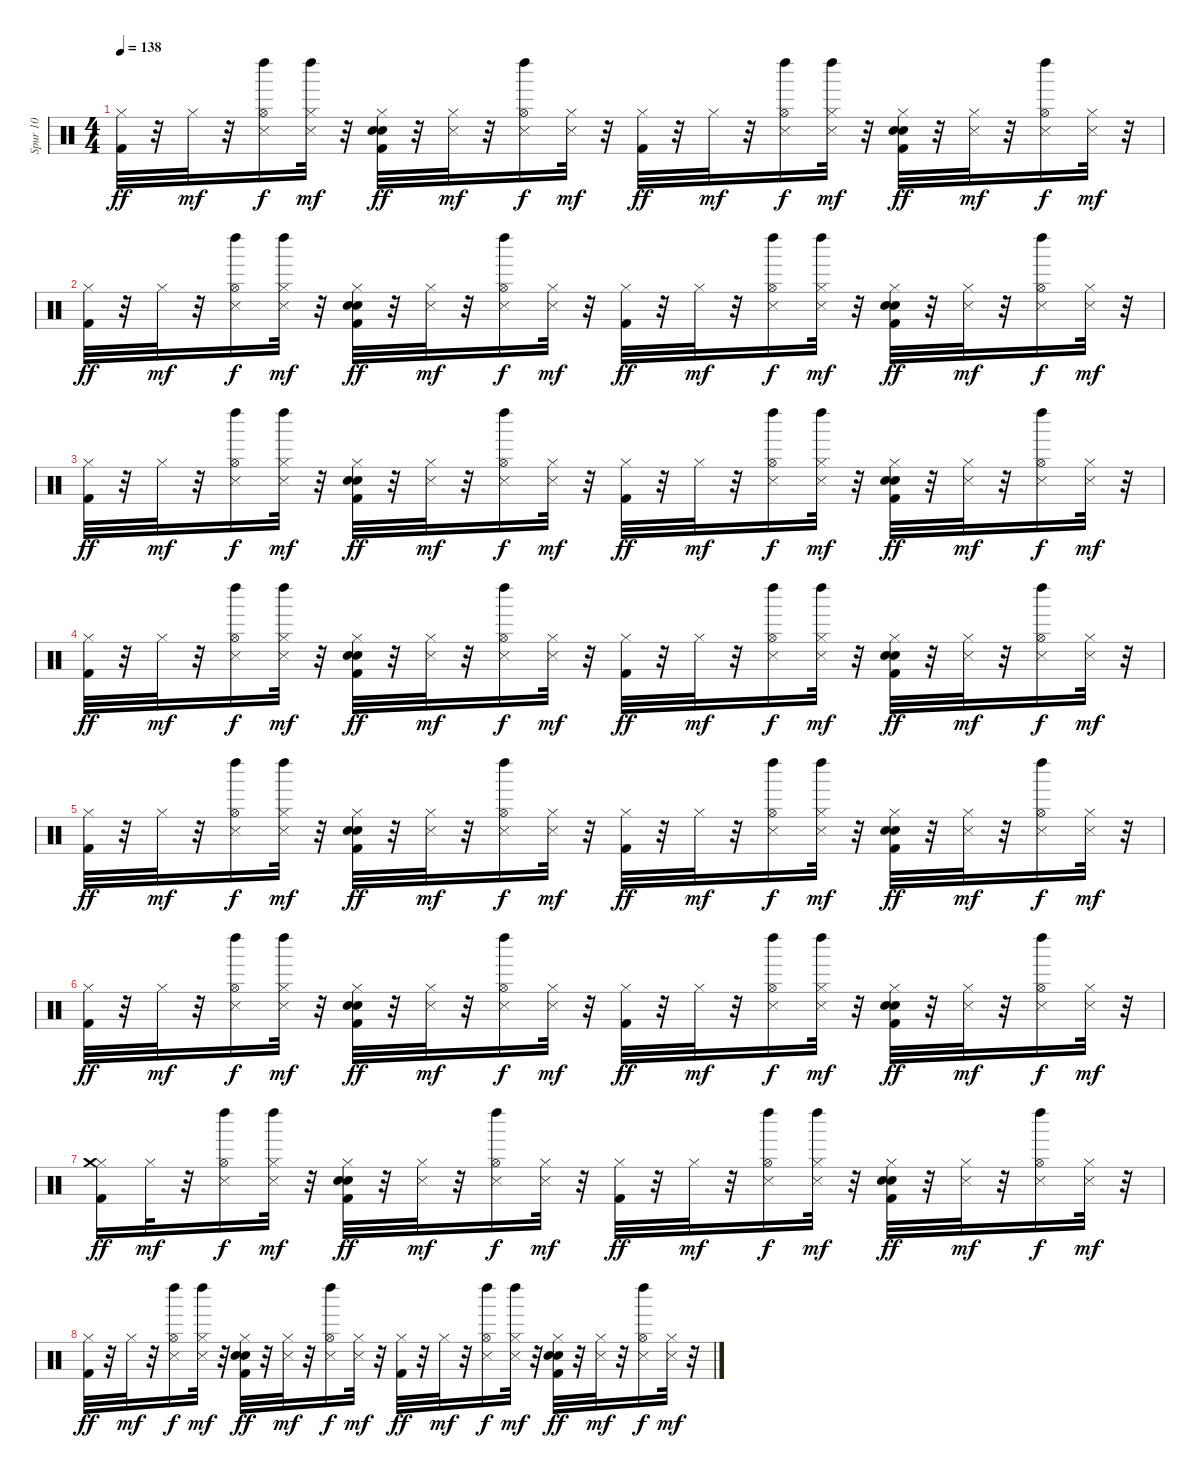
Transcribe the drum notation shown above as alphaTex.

\track ("Spur 10" "Spur 10") {instrument percussion}
\staff {score}
\articulation defaults
\ts (4 4)
\tempo 138
\clef neutral
\ks c
("Hi-Hat (closed)" "Kick (hit) 2").32{dy ff} r.32 "Hi-Hat (closed)".32{dy mf} r.32 ("Snare (side stick) 3" "Hi-Hat (open)" "Left Maraca (hit)").16{dy f} ("Hi-Hat (closed)" "Snare (side stick) 3" "Left Maraca (hit)").32{dy mf} r.32 ("Hand Clap (hit)" "Hi-Hat (closed)" "Kick (hit) 2" "Electric Snare (hit)").32{dy ff} r.32 ("Hi-Hat (closed)" "Snare (side stick) 3").32{dy mf} r.32 ("Snare (side stick) 3" "Hi-Hat (open)" "Left Maraca (hit)").16{dy f} ("Hi-Hat (closed)" "Snare (side stick) 3").32{dy mf} r.32 ("Hi-Hat (closed)" "Kick (hit) 2").32{dy ff} r.32 "Hi-Hat (closed)".32{dy mf} r.32 ("Snare (side stick) 3" "Hi-Hat (open)" "Left Maraca (hit)").16{dy f} ("Hi-Hat (closed)" "Snare (side stick) 3" "Left Maraca (hit)").32{dy mf} r.32 ("Hand Clap (hit)" "Hi-Hat (closed)" "Kick (hit) 2" "Electric Snare (hit)").32{dy ff} r.32 ("Hi-Hat (closed)" "Snare (side stick) 3").32{dy mf} r.32 ("Snare (side stick) 3" "Hi-Hat (open)" "Left Maraca (hit)").16{dy f} ("Hi-Hat (closed)" "Snare (side stick) 3").32{dy mf} r.32 |
("Hi-Hat (closed)" "Kick (hit) 2").32{dy ff} r.32 "Hi-Hat (closed)".32{dy mf} r.32 ("Snare (side stick) 3" "Hi-Hat (open)" "Left Maraca (hit)").16{dy f} ("Hi-Hat (closed)" "Snare (side stick) 3" "Left Maraca (hit)").32{dy mf} r.32 ("Hand Clap (hit)" "Hi-Hat (closed)" "Kick (hit) 2" "Electric Snare (hit)").32{dy ff} r.32 ("Hi-Hat (closed)" "Snare (side stick) 3").32{dy mf} r.32 ("Snare (side stick) 3" "Hi-Hat (open)" "Left Maraca (hit)").16{dy f} ("Hi-Hat (closed)" "Snare (side stick) 3").32{dy mf} r.32 ("Hi-Hat (closed)" "Kick (hit) 2").32{dy ff} r.32 "Hi-Hat (closed)".32{dy mf} r.32 ("Snare (side stick) 3" "Hi-Hat (open)" "Left Maraca (hit)").16{dy f} ("Hi-Hat (closed)" "Snare (side stick) 3" "Left Maraca (hit)").32{dy mf} r.32 ("Hand Clap (hit)" "Hi-Hat (closed)" "Kick (hit) 2" "Electric Snare (hit)").32{dy ff} r.32 ("Hi-Hat (closed)" "Snare (side stick) 3").32{dy mf} r.32 ("Snare (side stick) 3" "Hi-Hat (open)" "Left Maraca (hit)").16{dy f} ("Hi-Hat (closed)" "Snare (side stick) 3").32{dy mf} r.32 |
("Hi-Hat (closed)" "Kick (hit) 2").32{dy ff} r.32 "Hi-Hat (closed)".32{dy mf} r.32 ("Snare (side stick) 3" "Hi-Hat (open)" "Left Maraca (hit)").16{dy f} ("Hi-Hat (closed)" "Snare (side stick) 3" "Left Maraca (hit)").32{dy mf} r.32 ("Hand Clap (hit)" "Hi-Hat (closed)" "Kick (hit) 2" "Electric Snare (hit)").32{dy ff} r.32 ("Hi-Hat (closed)" "Snare (side stick) 3").32{dy mf} r.32 ("Snare (side stick) 3" "Hi-Hat (open)" "Left Maraca (hit)").16{dy f} ("Hi-Hat (closed)" "Snare (side stick) 3").32{dy mf} r.32 ("Hi-Hat (closed)" "Kick (hit) 2").32{dy ff} r.32 "Hi-Hat (closed)".32{dy mf} r.32 ("Snare (side stick) 3" "Hi-Hat (open)" "Left Maraca (hit)").16{dy f} ("Hi-Hat (closed)" "Snare (side stick) 3" "Left Maraca (hit)").32{dy mf} r.32 ("Hand Clap (hit)" "Hi-Hat (closed)" "Kick (hit) 2" "Electric Snare (hit)").32{dy ff} r.32 ("Hi-Hat (closed)" "Snare (side stick) 3").32{dy mf} r.32 ("Snare (side stick) 3" "Hi-Hat (open)" "Left Maraca (hit)").16{dy f} ("Hi-Hat (closed)" "Snare (side stick) 3").32{dy mf} r.32 |
("Hi-Hat (closed)" "Kick (hit) 2").32{dy ff} r.32 "Hi-Hat (closed)".32{dy mf} r.32 ("Snare (side stick) 3" "Hi-Hat (open)" "Left Maraca (hit)").16{dy f} ("Hi-Hat (closed)" "Snare (side stick) 3" "Left Maraca (hit)").32{dy mf} r.32 ("Hand Clap (hit)" "Hi-Hat (closed)" "Kick (hit) 2" "Electric Snare (hit)").32{dy ff} r.32 ("Hi-Hat (closed)" "Snare (side stick) 3").32{dy mf} r.32 ("Snare (side stick) 3" "Hi-Hat (open)" "Left Maraca (hit)").16{dy f} ("Hi-Hat (closed)" "Snare (side stick) 3").32{dy mf} r.32 ("Hi-Hat (closed)" "Kick (hit) 2").32{dy ff} r.32 "Hi-Hat (closed)".32{dy mf} r.32 ("Snare (side stick) 3" "Hi-Hat (open)" "Left Maraca (hit)").16{dy f} ("Hi-Hat (closed)" "Snare (side stick) 3" "Left Maraca (hit)").32{dy mf} r.32 ("Hand Clap (hit)" "Hi-Hat (closed)" "Kick (hit) 2" "Electric Snare (hit)").32{dy ff} r.32 ("Hi-Hat (closed)" "Snare (side stick) 3").32{dy mf} r.32 ("Snare (side stick) 3" "Hi-Hat (open)" "Left Maraca (hit)").16{dy f} ("Hi-Hat (closed)" "Snare (side stick) 3").32{dy mf} r.32 |
("Hi-Hat (closed)" "Kick (hit) 2").32{dy ff} r.32 "Hi-Hat (closed)".32{dy mf} r.32 ("Snare (side stick) 3" "Hi-Hat (open)" "Left Maraca (hit)").16{dy f} ("Hi-Hat (closed)" "Snare (side stick) 3" "Left Maraca (hit)").32{dy mf} r.32 ("Hand Clap (hit)" "Hi-Hat (closed)" "Kick (hit) 2" "Electric Snare (hit)").32{dy ff} r.32 ("Hi-Hat (closed)" "Snare (side stick) 3").32{dy mf} r.32 ("Snare (side stick) 3" "Hi-Hat (open)" "Left Maraca (hit)").16{dy f} ("Hi-Hat (closed)" "Snare (side stick) 3").32{dy mf} r.32 ("Hi-Hat (closed)" "Kick (hit) 2").32{dy ff} r.32 "Hi-Hat (closed)".32{dy mf} r.32 ("Snare (side stick) 3" "Hi-Hat (open)" "Left Maraca (hit)").16{dy f} ("Hi-Hat (closed)" "Snare (side stick) 3" "Left Maraca (hit)").32{dy mf} r.32 ("Hand Clap (hit)" "Hi-Hat (closed)" "Kick (hit) 2" "Electric Snare (hit)").32{dy ff} r.32 ("Hi-Hat (closed)" "Snare (side stick) 3").32{dy mf} r.32 ("Snare (side stick) 3" "Hi-Hat (open)" "Left Maraca (hit)").16{dy f} ("Hi-Hat (closed)" "Snare (side stick) 3").32{dy mf} r.32 |
("Hi-Hat (closed)" "Kick (hit) 2").32{dy ff} r.32 "Hi-Hat (closed)".32{dy mf} r.32 ("Snare (side stick) 3" "Hi-Hat (open)" "Left Maraca (hit)").16{dy f} ("Hi-Hat (closed)" "Snare (side stick) 3" "Left Maraca (hit)").32{dy mf} r.32 ("Hand Clap (hit)" "Hi-Hat (closed)" "Kick (hit) 2" "Electric Snare (hit)").32{dy ff} r.32 ("Hi-Hat (closed)" "Snare (side stick) 3").32{dy mf} r.32 ("Snare (side stick) 3" "Hi-Hat (open)" "Left Maraca (hit)").16{dy f} ("Hi-Hat (closed)" "Snare (side stick) 3").32{dy mf} r.32 ("Hi-Hat (closed)" "Kick (hit) 2").32{dy ff} r.32 "Hi-Hat (closed)".32{dy mf} r.32 ("Snare (side stick) 3" "Hi-Hat (open)" "Left Maraca (hit)").16{dy f} ("Hi-Hat (closed)" "Snare (side stick) 3" "Left Maraca (hit)").32{dy mf} r.32 ("Hand Clap (hit)" "Hi-Hat (closed)" "Kick (hit) 2" "Electric Snare (hit)").32{dy ff} r.32 ("Hi-Hat (closed)" "Snare (side stick) 3").32{dy mf} r.32 ("Snare (side stick) 3" "Hi-Hat (open)" "Left Maraca (hit)").16{dy f} ("Hi-Hat (closed)" "Snare (side stick) 3").32{dy mf} r.32 |
("Hi-Hat (closed)" "Crash medium (hit)" "Kick (hit) 2").16{dy ff} "Hi-Hat (closed)".32{dy mf} r.32 ("Snare (side stick) 3" "Hi-Hat (open)" "Left Maraca (hit)").16{dy f} ("Hi-Hat (closed)" "Snare (side stick) 3" "Left Maraca (hit)").32{dy mf} r.32 ("Hand Clap (hit)" "Hi-Hat (closed)" "Kick (hit) 2" "Electric Snare (hit)").32{dy ff} r.32 ("Hi-Hat (closed)" "Snare (side stick) 3").32{dy mf} r.32 ("Snare (side stick) 3" "Hi-Hat (open)" "Left Maraca (hit)").16{dy f} ("Hi-Hat (closed)" "Snare (side stick) 3").32{dy mf} r.32 ("Hi-Hat (closed)" "Kick (hit) 2").32{dy ff} r.32 "Hi-Hat (closed)".32{dy mf} r.32 ("Snare (side stick) 3" "Hi-Hat (open)" "Left Maraca (hit)").16{dy f} ("Hi-Hat (closed)" "Snare (side stick) 3" "Left Maraca (hit)").32{dy mf} r.32 ("Hand Clap (hit)" "Hi-Hat (closed)" "Kick (hit) 2" "Electric Snare (hit)").32{dy ff} r.32 ("Hi-Hat (closed)" "Snare (side stick) 3").32{dy mf} r.32 ("Snare (side stick) 3" "Hi-Hat (open)" "Left Maraca (hit)").16{dy f} ("Hi-Hat (closed)" "Snare (side stick) 3").32{dy mf} r.32 |
("Hi-Hat (closed)" "Kick (hit) 2").32{dy ff} r.32 "Hi-Hat (closed)".32{dy mf} r.32 ("Snare (side stick) 3" "Hi-Hat (open)" "Left Maraca (hit)").16{dy f} ("Hi-Hat (closed)" "Snare (side stick) 3" "Left Maraca (hit)").32{dy mf} r.32 ("Hand Clap (hit)" "Hi-Hat (closed)" "Kick (hit) 2" "Electric Snare (hit)").32{dy ff} r.32 ("Hi-Hat (closed)" "Snare (side stick) 3").32{dy mf} r.32 ("Snare (side stick) 3" "Hi-Hat (open)" "Left Maraca (hit)").16{dy f} ("Hi-Hat (closed)" "Snare (side stick) 3").32{dy mf} r.32 ("Hi-Hat (closed)" "Kick (hit) 2").32{dy ff} r.32 "Hi-Hat (closed)".32{dy mf} r.32 ("Snare (side stick) 3" "Hi-Hat (open)" "Left Maraca (hit)").16{dy f} ("Hi-Hat (closed)" "Snare (side stick) 3" "Left Maraca (hit)").32{dy mf} r.32 ("Hand Clap (hit)" "Hi-Hat (closed)" "Kick (hit) 2" "Electric Snare (hit)").32{dy ff} r.32 ("Hi-Hat (closed)" "Snare (side stick) 3").32{dy mf} r.32 ("Snare (side stick) 3" "Hi-Hat (open)" "Left Maraca (hit)").16{dy f} ("Hi-Hat (closed)" "Snare (side stick) 3").32{dy mf} r.32
